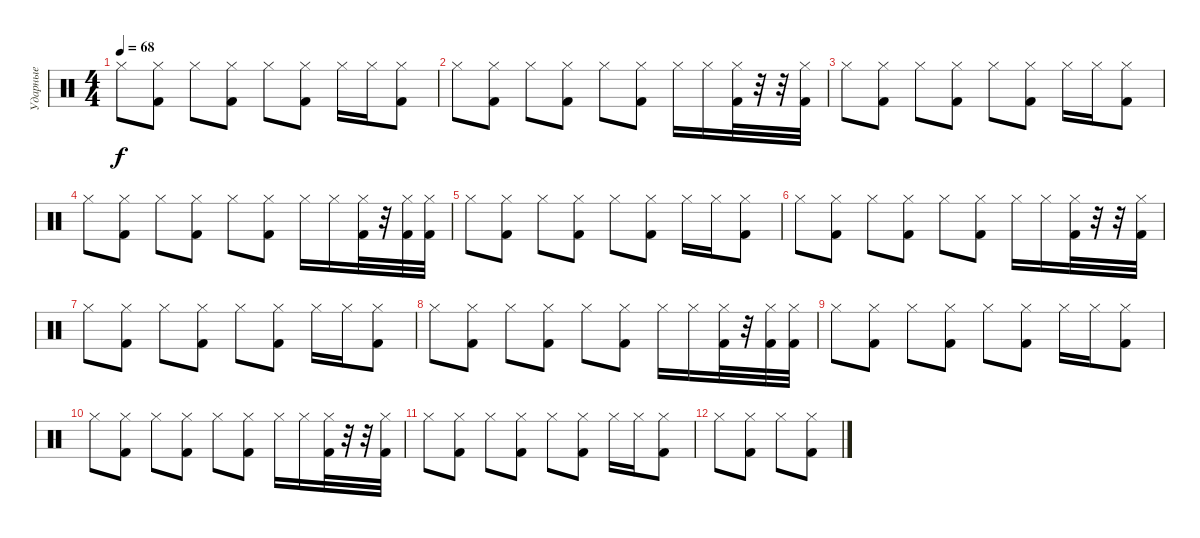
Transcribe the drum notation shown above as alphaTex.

\track ("Ударные" "Ударные") {instrument percussion}
\staff {score}
\articulation defaults
\ts (4 4)
\tempo 68
\clef neutral
\ks c "Hi-Hat (closed)".8{dy f}
("Hi-Hat (closed)" "Kick (hit) 2").8 "Hi-Hat (closed)".8 ("Hi-Hat (closed)" "Kick (hit) 2").8 "Hi-Hat (closed)".8 ("Hi-Hat (closed)" "Kick (hit) 2").8 "Hi-Hat (closed)".16 "Hi-Hat (closed)".16 ("Hi-Hat (closed)" "Kick (hit) 2").8 |
"Hi-Hat (closed)".8 ("Hi-Hat (closed)" "Kick (hit) 2").8 "Hi-Hat (closed)".8 ("Hi-Hat (closed)" "Kick (hit) 2").8 "Hi-Hat (closed)".8 ("Hi-Hat (closed)" "Kick (hit) 2").8 "Hi-Hat (closed)".16 "Hi-Hat (closed)".16 ("Hi-Hat (closed)" "Kick (hit) 2").32 r.32 r.32 ("Hi-Hat (closed)" "Kick (hit) 2").32 |
"Hi-Hat (closed)".8 ("Hi-Hat (closed)" "Kick (hit) 2").8 "Hi-Hat (closed)".8 ("Hi-Hat (closed)" "Kick (hit) 2").8 "Hi-Hat (closed)".8 ("Hi-Hat (closed)" "Kick (hit) 2").8 "Hi-Hat (closed)".16 "Hi-Hat (closed)".16 ("Hi-Hat (closed)" "Kick (hit) 2").8 |
"Hi-Hat (closed)".8 ("Hi-Hat (closed)" "Kick (hit) 2").8 "Hi-Hat (closed)".8 ("Hi-Hat (closed)" "Kick (hit) 2").8 "Hi-Hat (closed)".8 ("Hi-Hat (closed)" "Kick (hit) 2").8 "Hi-Hat (closed)".16 "Hi-Hat (closed)".16 ("Hi-Hat (closed)" "Kick (hit) 2").32 r.32 ("Hi-Hat (closed)" "Kick (hit) 2").32 ("Hi-Hat (closed)" "Kick (hit) 2").32 |
"Hi-Hat (closed)".8 ("Hi-Hat (closed)" "Kick (hit) 2").8 "Hi-Hat (closed)".8 ("Hi-Hat (closed)" "Kick (hit) 2").8 "Hi-Hat (closed)".8 ("Hi-Hat (closed)" "Kick (hit) 2").8 "Hi-Hat (closed)".16 "Hi-Hat (closed)".16 ("Hi-Hat (closed)" "Kick (hit) 2").8 |
"Hi-Hat (closed)".8 ("Hi-Hat (closed)" "Kick (hit) 2").8 "Hi-Hat (closed)".8 ("Hi-Hat (closed)" "Kick (hit) 2").8 "Hi-Hat (closed)".8 ("Hi-Hat (closed)" "Kick (hit) 2").8 "Hi-Hat (closed)".16 "Hi-Hat (closed)".16 ("Hi-Hat (closed)" "Kick (hit) 2").32 r.32 r.32 ("Hi-Hat (closed)" "Kick (hit) 2").32 |
"Hi-Hat (closed)".8 ("Hi-Hat (closed)" "Kick (hit) 2").8 "Hi-Hat (closed)".8 ("Hi-Hat (closed)" "Kick (hit) 2").8 "Hi-Hat (closed)".8 ("Hi-Hat (closed)" "Kick (hit) 2").8 "Hi-Hat (closed)".16 "Hi-Hat (closed)".16 ("Hi-Hat (closed)" "Kick (hit) 2").8 |
"Hi-Hat (closed)".8 ("Hi-Hat (closed)" "Kick (hit) 2").8 "Hi-Hat (closed)".8 ("Hi-Hat (closed)" "Kick (hit) 2").8 "Hi-Hat (closed)".8 ("Hi-Hat (closed)" "Kick (hit) 2").8 "Hi-Hat (closed)".16 "Hi-Hat (closed)".16 ("Hi-Hat (closed)" "Kick (hit) 2").32 r.32 ("Hi-Hat (closed)" "Kick (hit) 2").32 ("Hi-Hat (closed)" "Kick (hit) 2").32 |
"Hi-Hat (closed)".8 ("Hi-Hat (closed)" "Kick (hit) 2").8 "Hi-Hat (closed)".8 ("Hi-Hat (closed)" "Kick (hit) 2").8 "Hi-Hat (closed)".8 ("Hi-Hat (closed)" "Kick (hit) 2").8 "Hi-Hat (closed)".16 "Hi-Hat (closed)".16 ("Hi-Hat (closed)" "Kick (hit) 2").8 |
"Hi-Hat (closed)".8 ("Hi-Hat (closed)" "Kick (hit) 2").8 "Hi-Hat (closed)".8 ("Hi-Hat (closed)" "Kick (hit) 2").8 "Hi-Hat (closed)".8 ("Hi-Hat (closed)" "Kick (hit) 2").8 "Hi-Hat (closed)".16 "Hi-Hat (closed)".16 ("Hi-Hat (closed)" "Kick (hit) 2").32 r.32 r.32 ("Hi-Hat (closed)" "Kick (hit) 2").32 |
"Hi-Hat (closed)".8 ("Hi-Hat (closed)" "Kick (hit) 2").8 "Hi-Hat (closed)".8 ("Hi-Hat (closed)" "Kick (hit) 2").8 "Hi-Hat (closed)".8 ("Hi-Hat (closed)" "Kick (hit) 2").8 "Hi-Hat (closed)".16 "Hi-Hat (closed)".16 ("Hi-Hat (closed)" "Kick (hit) 2").8 |
"Hi-Hat (closed)".8 ("Hi-Hat (closed)" "Kick (hit) 2").8 "Hi-Hat (closed)".8 ("Hi-Hat (closed)" "Kick (hit) 2").8
